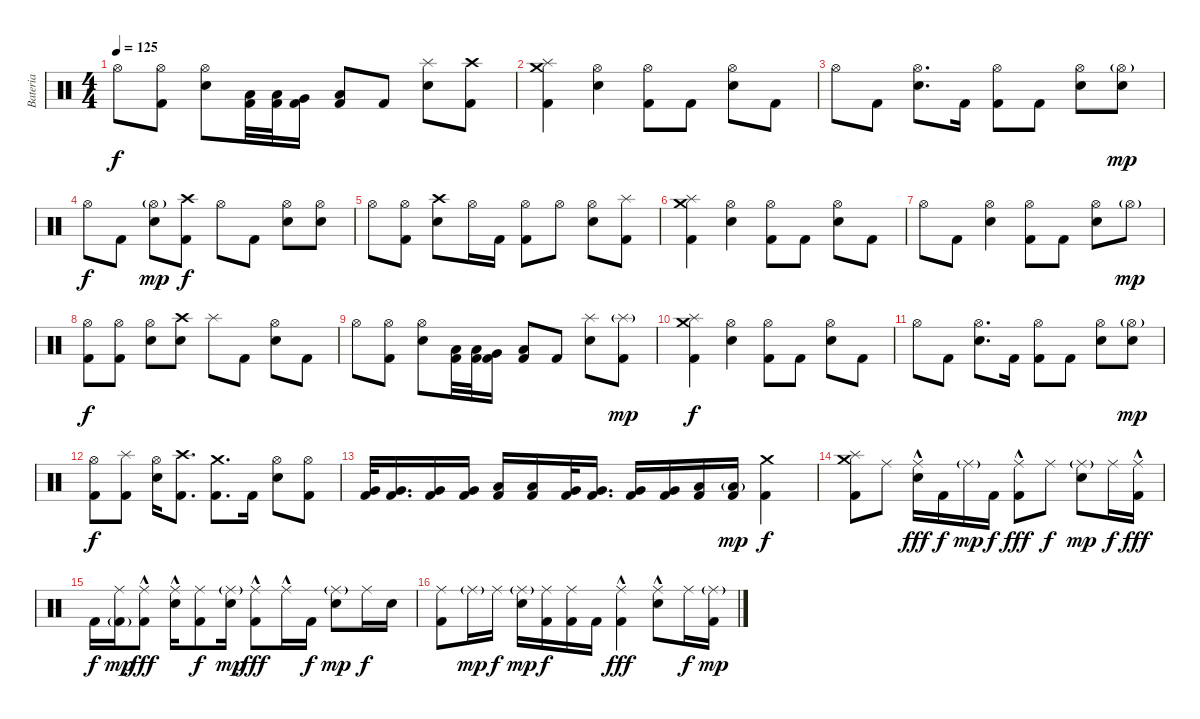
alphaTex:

\track ("Bateria" "Bateria") {instrument percussion}
\staff {score}
\articulation defaults
\ts (4 4)
\tempo 125
\clef neutral
\ks c "Hi-Hat (open)".8{dy f}
("Hi-Hat (open)" "Kick (hit) 2").8 ("Hi-Hat (open)" "Electric Snare (hit)").8 ("Low Tom (hit)" "Kick (hit) 2").32 ("Low Tom (hit)" "Kick (hit) 2").32 ("Very Low Tom (hit)" "Kick (hit) 2").16 ("Low Floor Tom (hit)" "Kick (hit) 2").8 "Kick (hit) 2".8 ("Splash (hit)" "Electric Snare (hit)").8 ("Crash high (hit)" "Kick (hit) 2").8 |
("Crash medium (hit)" "Splash (hit)" "Kick (hit) 2").4 ("Hi-Hat (open)" "Electric Snare (hit)").4 ("Hi-Hat (open)" "Kick (hit) 2").8 "Kick (hit) 2".8 ("Hi-Hat (open)" "Electric Snare (hit)").8 "Kick (hit) 2".8 |
"Hi-Hat (open)".8 "Kick (hit) 2".8 ("Hi-Hat (open)" "Electric Snare (hit)").8{d} "Kick (hit) 2".16 ("Hi-Hat (open)" "Kick (hit) 2").8 "Kick (hit) 2".8 ("Hi-Hat (open)" "Electric Snare (hit)").8 ("Hi-Hat (open)"{g} "Electric Snare (hit)").8{dy mp} |
"Hi-Hat (open)".8{dy f} "Kick (hit) 2".8 ("Hi-Hat (open)"{g} "Electric Snare (hit)").8{dy mp} ("Crash high (hit)" "Kick (hit) 2").8{dy f} "Hi-Hat (open)".8 "Kick (hit) 2".8 ("Hi-Hat (open)" "Electric Snare (hit)").8 ("Hi-Hat (open)" "Electric Snare (hit)").8 |
"Hi-Hat (open)".8 ("Hi-Hat (open)" "Kick (hit) 2").8 ("Crash high (hit)" "Electric Snare (hit)").8 "Hi-Hat (open)".16 "Kick (hit) 2".16 ("Hi-Hat (open)" "Kick (hit) 2").8 "Hi-Hat (open)".8 ("Hi-Hat (open)" "Electric Snare (hit)").8 ("Splash (hit)" "Kick (hit) 2").8 |
("Crash medium (hit)" "Splash (hit)" "Kick (hit) 2").4 ("Hi-Hat (open)" "Electric Snare (hit)").4 ("Hi-Hat (open)" "Kick (hit) 2").8 "Kick (hit) 2".8 ("Hi-Hat (open)" "Electric Snare (hit)").8 "Kick (hit) 2".8 |
"Hi-Hat (open)".8 "Kick (hit) 2".8 ("Hi-Hat (open)" "Electric Snare (hit)").4 ("Hi-Hat (open)" "Kick (hit) 2").8 "Kick (hit) 2".8 ("Hi-Hat (open)" "Electric Snare (hit)").8 "Hi-Hat (open)"{g}.8{dy mp} |
("Hi-Hat (open)" "Kick (hit) 2").8{dy f} ("Hi-Hat (open)" "Kick (hit) 2").8 ("Hi-Hat (open)" "Electric Snare (hit)").8 ("Crash high (hit)" "Electric Snare (hit)").8 "Splash (hit)".8 "Kick (hit) 2".8 ("Hi-Hat (open)" "Electric Snare (hit)").8 "Kick (hit) 2".8 |
"Hi-Hat (open)".8 ("Hi-Hat (open)" "Kick (hit) 2").8 ("Hi-Hat (open)" "Electric Snare (hit)").8 ("Low Tom (hit)" "Kick (hit) 2").32 ("Low Tom (hit)" "Kick (hit) 2").32 ("Very Low Tom (hit)" "Kick (hit) 2").16 ("Low Floor Tom (hit)" "Kick (hit) 2").8 "Kick (hit) 2".8 ("Splash (hit)" "Electric Snare (hit)").8 ("Splash (hit)"{g} "Kick (hit) 2").8{dy mp} |
("Crash medium (hit)" "Splash (hit)" "Kick (hit) 2").4{dy f} ("Hi-Hat (open)" "Electric Snare (hit)").4 ("Hi-Hat (open)" "Kick (hit) 2").8 "Kick (hit) 2".8 ("Hi-Hat (open)" "Electric Snare (hit)").8 "Kick (hit) 2".8 |
"Hi-Hat (open)".8 "Kick (hit) 2".8 ("Hi-Hat (open)" "Electric Snare (hit)").8{d} "Kick (hit) 2".16 ("Hi-Hat (open)" "Kick (hit) 2").8 "Kick (hit) 2".8 ("Hi-Hat (open)" "Electric Snare (hit)").8 ("Hi-Hat (open)"{g} "Electric Snare (hit)").8{dy mp} |
("Hi-Hat (open)" "Kick (hit) 2").8{dy f} ("Splash (hit)" "Kick (hit) 2").8 ("Hi-Hat (open)" "Electric Snare (hit)").16 ("Crash high (hit)" "Kick (hit) 2").8{d} ("Crash medium (hit)" "Kick (hit) 2").8{d} "Kick (hit) 2".16 ("Hi-Hat (open)" "Electric Snare (hit)").8 ("Hi-Hat (open)" "Kick (hit) 2").8 |
("Very Low Tom (hit)" "Kick (hit) 2").32 ("Very Low Tom (hit)" "Kick (hit) 2").16{d} ("Very Low Tom (hit)" "Kick (hit) 2").16 ("Very Low Tom (hit)" "Kick (hit) 2").16 ("Low Floor Tom (hit)" "Kick (hit) 2").16 ("Low Floor Tom (hit)" "Kick (hit) 2").16 ("Very Low Tom (hit)" "Kick (hit) 2").32 ("Very Low Tom (hit)" "Kick (hit) 2").16{d} ("Very Low Tom (hit)" "Kick (hit) 2").16 ("Very Low Tom (hit)" "Kick (hit) 2").16 ("Low Floor Tom (hit)" "Kick (hit) 2").16 ("Low Floor Tom (hit)"{g} "Kick (hit) 2").16{dy mp} ("Crash medium (hit)" "Kick (hit) 2").4{dy f} |
("Crash medium (hit)" "Splash (hit)" "Kick (hit) 2").8 "Ride (middle)".8 ("Ride (middle)"{hac} "Electric Snare (hit)").16{dy fff} "Kick (hit) 2".16{dy f} "Ride (middle)"{g}.16{dy mp} "Kick (hit) 2".16{dy f} ("Ride (middle)"{hac} "Kick (hit) 2").8{dy fff} "Ride (middle)".8{dy f} ("Ride (middle)"{g} "Electric Snare (hit)").8{dy mp} "Ride (middle)".16{dy f} ("Ride (middle)"{hac} "Kick (hit) 2").16{dy fff} |
"Kick (hit) 2".16{dy f} ("Ride (middle)" "Kick (hit) 2"{g}).16{dy mp} ("Ride (middle)"{hac} "Kick (hit) 2").8{dy fff} ("Ride (middle)"{hac} "Electric Snare (hit)").16 ("Ride (middle)" "Kick (hit) 2").8{dy f} ("Ride (middle)"{g} "Electric Snare (hit)").16{dy mp} ("Ride (middle)"{hac} "Kick (hit) 2").8{dy fff} "Ride (middle)"{hac}.16 "Kick (hit) 2".16{dy f} ("Ride (middle)"{g} "Electric Snare (hit)").8{dy mp} "Ride (middle)".16{dy f} "Electric Snare (hit)".16 |
("Ride (middle)" "Kick (hit) 2").8 "Ride (middle)"{g}.16{dy mp} "Ride (middle)".16{dy f} ("Ride (middle)"{g} "Electric Snare (hit)").16{dy mp} ("Ride (middle)" "Kick (hit) 2").16{dy f} ("Ride (middle)" "Kick (hit) 2").16 "Kick (hit) 2".16 ("Ride (middle)"{hac} "Kick (hit) 2").4{dy fff} ("Ride (middle)"{hac} "Electric Snare (hit)").8 "Ride (middle)".16{dy f} ("Ride (middle)"{g} "Kick (hit) 2").16{dy mp}
